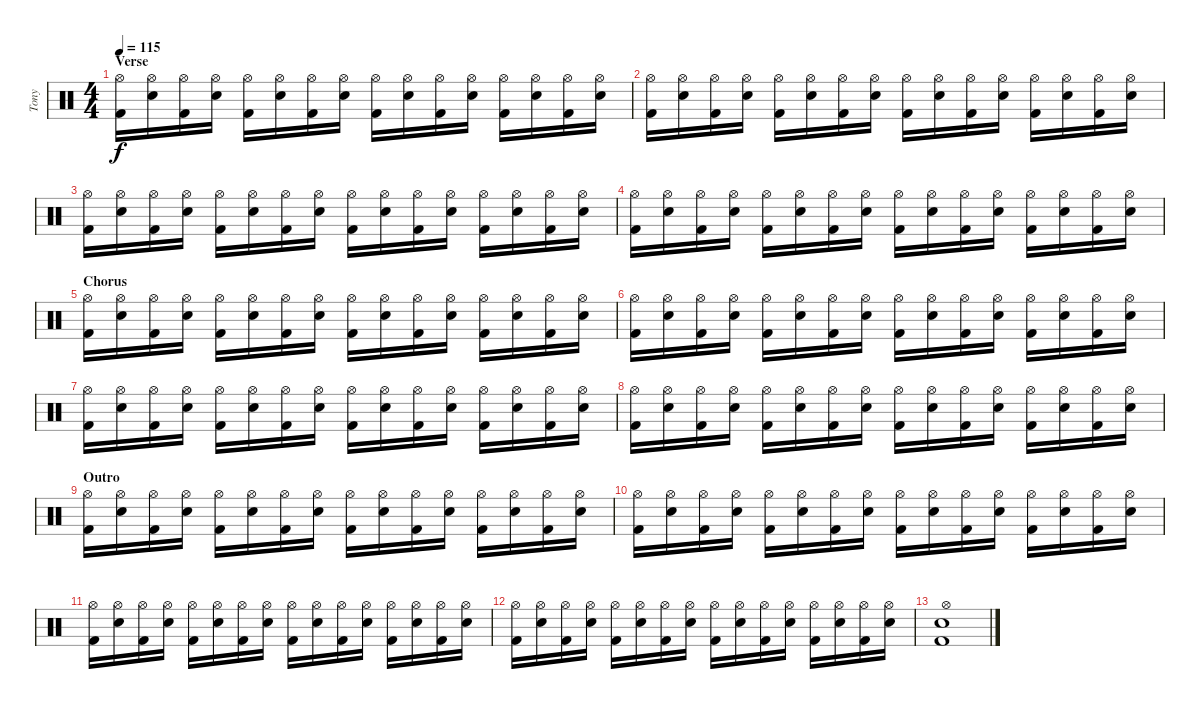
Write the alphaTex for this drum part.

\track ("Tony" "Tony") {instrument percussion}
\staff {score}
\articulation defaults
\ts (4 4)
\section ("" "Verse")
\tempo 115
\clef neutral
\ks c
("Kick (hit) 2" "Hi-Hat (open)").16{dy f} ("Electric Snare (hit)" "Hi-Hat (open)").16 ("Kick (hit) 2" "Hi-Hat (open)").16 ("Electric Snare (hit)" "Hi-Hat (open)").16 ("Kick (hit) 2" "Hi-Hat (open)").16 ("Electric Snare (hit)" "Hi-Hat (open)").16 ("Kick (hit) 2" "Hi-Hat (open)").16 ("Electric Snare (hit)" "Hi-Hat (open)").16 ("Kick (hit) 2" "Hi-Hat (open)").16 ("Electric Snare (hit)" "Hi-Hat (open)").16 ("Kick (hit) 2" "Hi-Hat (open)").16 ("Electric Snare (hit)" "Hi-Hat (open)").16 ("Kick (hit) 2" "Hi-Hat (open)").16 ("Electric Snare (hit)" "Hi-Hat (open)").16 ("Kick (hit) 2" "Hi-Hat (open)").16 ("Electric Snare (hit)" "Hi-Hat (open)").16 |
("Kick (hit) 2" "Hi-Hat (open)").16 ("Electric Snare (hit)" "Hi-Hat (open)").16 ("Kick (hit) 2" "Hi-Hat (open)").16 ("Electric Snare (hit)" "Hi-Hat (open)").16 ("Kick (hit) 2" "Hi-Hat (open)").16 ("Electric Snare (hit)" "Hi-Hat (open)").16 ("Kick (hit) 2" "Hi-Hat (open)").16 ("Electric Snare (hit)" "Hi-Hat (open)").16 ("Kick (hit) 2" "Hi-Hat (open)").16 ("Electric Snare (hit)" "Hi-Hat (open)").16 ("Kick (hit) 2" "Hi-Hat (open)").16 ("Electric Snare (hit)" "Hi-Hat (open)").16 ("Kick (hit) 2" "Hi-Hat (open)").16 ("Electric Snare (hit)" "Hi-Hat (open)").16 ("Kick (hit) 2" "Hi-Hat (open)").16 ("Electric Snare (hit)" "Hi-Hat (open)").16 |
("Kick (hit) 2" "Hi-Hat (open)").16 ("Electric Snare (hit)" "Hi-Hat (open)").16 ("Kick (hit) 2" "Hi-Hat (open)").16 ("Electric Snare (hit)" "Hi-Hat (open)").16 ("Kick (hit) 2" "Hi-Hat (open)").16 ("Electric Snare (hit)" "Hi-Hat (open)").16 ("Kick (hit) 2" "Hi-Hat (open)").16 ("Electric Snare (hit)" "Hi-Hat (open)").16 ("Kick (hit) 2" "Hi-Hat (open)").16 ("Electric Snare (hit)" "Hi-Hat (open)").16 ("Kick (hit) 2" "Hi-Hat (open)").16 ("Electric Snare (hit)" "Hi-Hat (open)").16 ("Kick (hit) 2" "Hi-Hat (open)").16 ("Electric Snare (hit)" "Hi-Hat (open)").16 ("Kick (hit) 2" "Hi-Hat (open)").16 ("Electric Snare (hit)" "Hi-Hat (open)").16 |
("Kick (hit) 2" "Hi-Hat (open)").16 ("Electric Snare (hit)" "Hi-Hat (open)").16 ("Kick (hit) 2" "Hi-Hat (open)").16 ("Electric Snare (hit)" "Hi-Hat (open)").16 ("Kick (hit) 2" "Hi-Hat (open)").16 ("Electric Snare (hit)" "Hi-Hat (open)").16 ("Kick (hit) 2" "Hi-Hat (open)").16 ("Electric Snare (hit)" "Hi-Hat (open)").16 ("Kick (hit) 2" "Hi-Hat (open)").16 ("Electric Snare (hit)" "Hi-Hat (open)").16 ("Kick (hit) 2" "Hi-Hat (open)").16 ("Electric Snare (hit)" "Hi-Hat (open)").16 ("Kick (hit) 2" "Hi-Hat (open)").16 ("Electric Snare (hit)" "Hi-Hat (open)").16 ("Kick (hit) 2" "Hi-Hat (open)").16 ("Electric Snare (hit)" "Hi-Hat (open)").16 |
\section ("" "Chorus")
("Kick (hit) 2" "Hi-Hat (open)").16 ("Electric Snare (hit)" "Hi-Hat (open)").16 ("Kick (hit) 2" "Hi-Hat (open)").16 ("Electric Snare (hit)" "Hi-Hat (open)").16 ("Kick (hit) 2" "Hi-Hat (open)").16 ("Electric Snare (hit)" "Hi-Hat (open)").16 ("Kick (hit) 2" "Hi-Hat (open)").16 ("Electric Snare (hit)" "Hi-Hat (open)").16 ("Kick (hit) 2" "Hi-Hat (open)").16 ("Electric Snare (hit)" "Hi-Hat (open)").16 ("Kick (hit) 2" "Hi-Hat (open)").16 ("Electric Snare (hit)" "Hi-Hat (open)").16 ("Kick (hit) 2" "Hi-Hat (open)").16 ("Electric Snare (hit)" "Hi-Hat (open)").16 ("Kick (hit) 2" "Hi-Hat (open)").16 ("Electric Snare (hit)" "Hi-Hat (open)").16 |
("Kick (hit) 2" "Hi-Hat (open)").16 ("Electric Snare (hit)" "Hi-Hat (open)").16 ("Kick (hit) 2" "Hi-Hat (open)").16 ("Electric Snare (hit)" "Hi-Hat (open)").16 ("Kick (hit) 2" "Hi-Hat (open)").16 ("Electric Snare (hit)" "Hi-Hat (open)").16 ("Kick (hit) 2" "Hi-Hat (open)").16 ("Electric Snare (hit)" "Hi-Hat (open)").16 ("Kick (hit) 2" "Hi-Hat (open)").16 ("Electric Snare (hit)" "Hi-Hat (open)").16 ("Kick (hit) 2" "Hi-Hat (open)").16 ("Electric Snare (hit)" "Hi-Hat (open)").16 ("Kick (hit) 2" "Hi-Hat (open)").16 ("Electric Snare (hit)" "Hi-Hat (open)").16 ("Kick (hit) 2" "Hi-Hat (open)").16 ("Electric Snare (hit)" "Hi-Hat (open)").16 |
("Kick (hit) 2" "Hi-Hat (open)").16 ("Electric Snare (hit)" "Hi-Hat (open)").16 ("Kick (hit) 2" "Hi-Hat (open)").16 ("Electric Snare (hit)" "Hi-Hat (open)").16 ("Kick (hit) 2" "Hi-Hat (open)").16 ("Electric Snare (hit)" "Hi-Hat (open)").16 ("Kick (hit) 2" "Hi-Hat (open)").16 ("Electric Snare (hit)" "Hi-Hat (open)").16 ("Kick (hit) 2" "Hi-Hat (open)").16 ("Electric Snare (hit)" "Hi-Hat (open)").16 ("Kick (hit) 2" "Hi-Hat (open)").16 ("Electric Snare (hit)" "Hi-Hat (open)").16 ("Kick (hit) 2" "Hi-Hat (open)").16 ("Electric Snare (hit)" "Hi-Hat (open)").16 ("Kick (hit) 2" "Hi-Hat (open)").16 ("Electric Snare (hit)" "Hi-Hat (open)").16 |
("Kick (hit) 2" "Hi-Hat (open)").16 ("Electric Snare (hit)" "Hi-Hat (open)").16 ("Kick (hit) 2" "Hi-Hat (open)").16 ("Electric Snare (hit)" "Hi-Hat (open)").16 ("Kick (hit) 2" "Hi-Hat (open)").16 ("Electric Snare (hit)" "Hi-Hat (open)").16 ("Kick (hit) 2" "Hi-Hat (open)").16 ("Electric Snare (hit)" "Hi-Hat (open)").16 ("Kick (hit) 2" "Hi-Hat (open)").16 ("Electric Snare (hit)" "Hi-Hat (open)").16 ("Kick (hit) 2" "Hi-Hat (open)").16 ("Electric Snare (hit)" "Hi-Hat (open)").16 ("Kick (hit) 2" "Hi-Hat (open)").16 ("Electric Snare (hit)" "Hi-Hat (open)").16 ("Kick (hit) 2" "Hi-Hat (open)").16 ("Electric Snare (hit)" "Hi-Hat (open)").16 |
\section ("" "Outro")
("Kick (hit) 2" "Hi-Hat (open)").16 ("Electric Snare (hit)" "Hi-Hat (open)").16 ("Kick (hit) 2" "Hi-Hat (open)").16 ("Electric Snare (hit)" "Hi-Hat (open)").16 ("Kick (hit) 2" "Hi-Hat (open)").16 ("Electric Snare (hit)" "Hi-Hat (open)").16 ("Kick (hit) 2" "Hi-Hat (open)").16 ("Electric Snare (hit)" "Hi-Hat (open)").16 ("Kick (hit) 2" "Hi-Hat (open)").16 ("Electric Snare (hit)" "Hi-Hat (open)").16 ("Kick (hit) 2" "Hi-Hat (open)").16 ("Electric Snare (hit)" "Hi-Hat (open)").16 ("Kick (hit) 2" "Hi-Hat (open)").16 ("Electric Snare (hit)" "Hi-Hat (open)").16 ("Kick (hit) 2" "Hi-Hat (open)").16 ("Electric Snare (hit)" "Hi-Hat (open)").16 |
("Kick (hit) 2" "Hi-Hat (open)").16 ("Electric Snare (hit)" "Hi-Hat (open)").16 ("Kick (hit) 2" "Hi-Hat (open)").16 ("Electric Snare (hit)" "Hi-Hat (open)").16 ("Kick (hit) 2" "Hi-Hat (open)").16 ("Electric Snare (hit)" "Hi-Hat (open)").16 ("Kick (hit) 2" "Hi-Hat (open)").16 ("Electric Snare (hit)" "Hi-Hat (open)").16 ("Kick (hit) 2" "Hi-Hat (open)").16 ("Electric Snare (hit)" "Hi-Hat (open)").16 ("Kick (hit) 2" "Hi-Hat (open)").16 ("Electric Snare (hit)" "Hi-Hat (open)").16 ("Kick (hit) 2" "Hi-Hat (open)").16 ("Electric Snare (hit)" "Hi-Hat (open)").16 ("Kick (hit) 2" "Hi-Hat (open)").16 ("Electric Snare (hit)" "Hi-Hat (open)").16 |
("Kick (hit) 2" "Hi-Hat (open)").16 ("Electric Snare (hit)" "Hi-Hat (open)").16 ("Kick (hit) 2" "Hi-Hat (open)").16 ("Electric Snare (hit)" "Hi-Hat (open)").16 ("Kick (hit) 2" "Hi-Hat (open)").16 ("Electric Snare (hit)" "Hi-Hat (open)").16 ("Kick (hit) 2" "Hi-Hat (open)").16 ("Electric Snare (hit)" "Hi-Hat (open)").16 ("Kick (hit) 2" "Hi-Hat (open)").16 ("Electric Snare (hit)" "Hi-Hat (open)").16 ("Kick (hit) 2" "Hi-Hat (open)").16 ("Electric Snare (hit)" "Hi-Hat (open)").16 ("Kick (hit) 2" "Hi-Hat (open)").16 ("Electric Snare (hit)" "Hi-Hat (open)").16 ("Kick (hit) 2" "Hi-Hat (open)").16 ("Electric Snare (hit)" "Hi-Hat (open)").16 |
("Kick (hit) 2" "Hi-Hat (open)").16 ("Electric Snare (hit)" "Hi-Hat (open)").16 ("Kick (hit) 2" "Hi-Hat (open)").16 ("Electric Snare (hit)" "Hi-Hat (open)").16 ("Kick (hit) 2" "Hi-Hat (open)").16 ("Electric Snare (hit)" "Hi-Hat (open)").16 ("Kick (hit) 2" "Hi-Hat (open)").16 ("Electric Snare (hit)" "Hi-Hat (open)").16 ("Kick (hit) 2" "Hi-Hat (open)").16 ("Electric Snare (hit)" "Hi-Hat (open)").16 ("Kick (hit) 2" "Hi-Hat (open)").16 ("Electric Snare (hit)" "Hi-Hat (open)").16 ("Kick (hit) 2" "Hi-Hat (open)").16 ("Electric Snare (hit)" "Hi-Hat (open)").16 ("Kick (hit) 2" "Hi-Hat (open)").16 ("Electric Snare (hit)" "Hi-Hat (open)").16 |
("Kick (hit) 2" "Electric Snare (hit)" "Hi-Hat (open)").1
